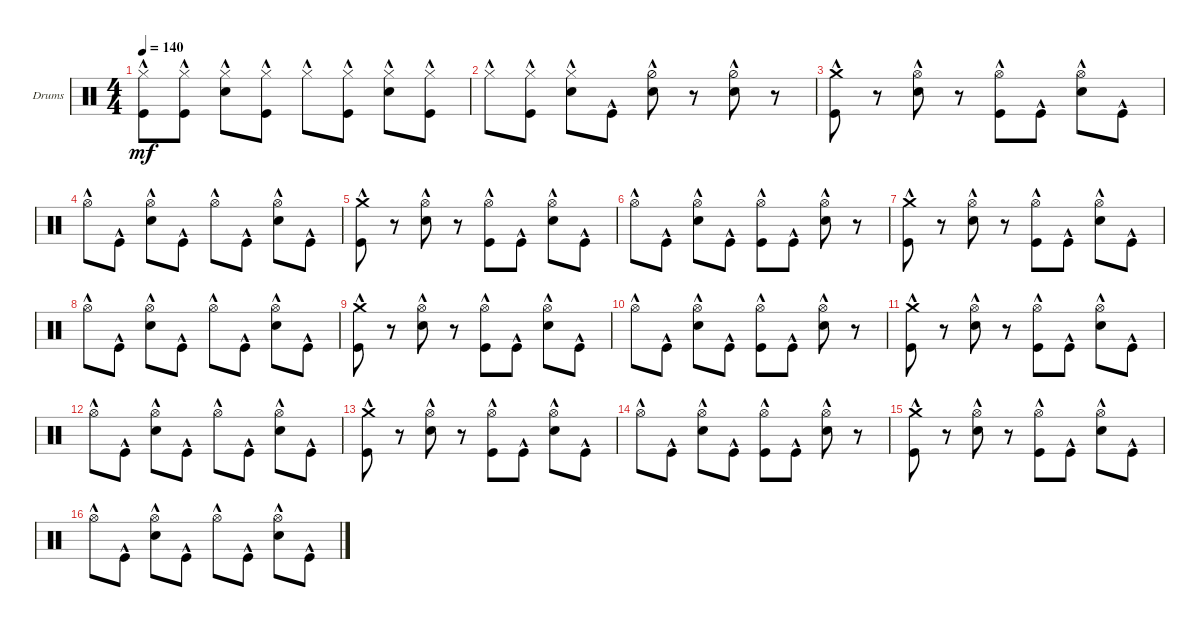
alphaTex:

\defaultSystemsLayout 4
\bracketExtendMode groupsimilarinstruments
\firstSystemTrackNameOrientation horizontal
\otherSystemsTrackNameOrientation horizontal
\track ("Drumkit" "Drums") {instrument percussion}
\staff {score}
\articulation defaults
\ts (4 4)
\tempo 140
\clef neutral
\ks c
("Kick (hit)"{hac} "Hi-Hat (closed)"{hac}).8{dy mf} ("Hi-Hat (closed)"{hac} "Kick (hit)"{hac}).8 ("Hi-Hat (closed)"{hac} "Snare (hit) 2"{hac}).8 ("Hi-Hat (closed)"{hac} "Kick (hit)"{hac}).8 "Hi-Hat (closed)"{hac}.8 ("Hi-Hat (closed)"{hac} "Kick (hit)"{hac}).8 ("Hi-Hat (closed)"{hac} "Snare (hit) 2"{hac}).8 ("Hi-Hat (closed)"{hac} "Kick (hit)"{hac}).8 |
"Hi-Hat (closed)"{hac}.8 ("Hi-Hat (closed)"{hac} "Kick (hit)"{hac}).8 ("Hi-Hat (closed)"{hac} "Snare (hit) 2"{hac}).8 "Kick (hit)"{hac}.8 ("Hi-Hat (half)"{hac} "Snare (hit) 2"{hac}).8 r.8 ("Hi-Hat (half)"{hac} "Snare (hit) 2"{hac}).8 r.8 |
("Kick (hit)"{hac} "Crash medium (hit)"{hac}).8 r.8 ("Hi-Hat (open)"{hac} "Snare (hit) 2"{hac}).8 r.8 ("Hi-Hat (open)"{hac} "Kick (hit)"{hac}).8 "Kick (hit)"{hac}.8 ("Hi-Hat (open)"{hac} "Snare (hit) 2"{hac}).8 "Kick (hit)"{hac}.8 |
"Hi-Hat (open)"{hac}.8 "Kick (hit)"{hac}.8 ("Hi-Hat (open)"{hac} "Snare (hit) 2"{hac}).8 "Kick (hit)"{hac}.8 "Hi-Hat (open)"{hac}.8 "Kick (hit)"{hac}.8 ("Hi-Hat (open)"{hac} "Snare (hit) 2"{hac}).8 "Kick (hit)"{hac}.8 |
("Kick (hit)"{hac} "Crash medium (hit)"{hac}).8 r.8 ("Hi-Hat (open)"{hac} "Snare (hit) 2"{hac}).8 r.8 ("Hi-Hat (open)"{hac} "Kick (hit)"{hac}).8 "Kick (hit)"{hac}.8 ("Hi-Hat (open)"{hac} "Snare (hit) 2"{hac}).8 "Kick (hit)"{hac}.8 |
"Hi-Hat (open)"{hac}.8 "Kick (hit)"{hac}.8 ("Hi-Hat (open)"{hac} "Snare (hit) 2"{hac}).8 "Kick (hit)"{hac}.8 ("Hi-Hat (open)"{hac} "Kick (hit)"{hac}).8 "Kick (hit)"{hac}.8 ("Hi-Hat (open)"{hac} "Snare (hit) 2"{hac}).8 r.8 |
("Kick (hit)"{hac} "Crash medium (hit)"{hac}).8 r.8 ("Hi-Hat (open)"{hac} "Snare (hit) 2"{hac}).8 r.8 ("Hi-Hat (open)"{hac} "Kick (hit)"{hac}).8 "Kick (hit)"{hac}.8 ("Hi-Hat (open)"{hac} "Snare (hit) 2"{hac}).8 "Kick (hit)"{hac}.8 |
"Hi-Hat (open)"{hac}.8 "Kick (hit)"{hac}.8 ("Hi-Hat (open)"{hac} "Snare (hit) 2"{hac}).8 "Kick (hit)"{hac}.8 "Hi-Hat (open)"{hac}.8 "Kick (hit)"{hac}.8 ("Hi-Hat (open)"{hac} "Snare (hit) 2"{hac}).8 "Kick (hit)"{hac}.8 |
("Kick (hit)"{hac} "Crash medium (hit)"{hac}).8 r.8 ("Hi-Hat (open)"{hac} "Snare (hit) 2"{hac}).8 r.8 ("Hi-Hat (open)"{hac} "Kick (hit)"{hac}).8 "Kick (hit)"{hac}.8 ("Hi-Hat (open)"{hac} "Snare (hit) 2"{hac}).8 "Kick (hit)"{hac}.8 |
"Hi-Hat (open)"{hac}.8 "Kick (hit)"{hac}.8 ("Hi-Hat (open)"{hac} "Snare (hit) 2"{hac}).8 "Kick (hit)"{hac}.8 ("Hi-Hat (open)"{hac} "Kick (hit)"{hac}).8 "Kick (hit)"{hac}.8 ("Hi-Hat (open)"{hac} "Snare (hit) 2"{hac}).8 r.8 |
("Kick (hit)"{hac} "Crash medium (hit)"{hac}).8 r.8 ("Hi-Hat (open)"{hac} "Snare (hit) 2"{hac}).8 r.8 ("Hi-Hat (open)"{hac} "Kick (hit)"{hac}).8 "Kick (hit)"{hac}.8 ("Hi-Hat (open)"{hac} "Snare (hit) 2"{hac}).8 "Kick (hit)"{hac}.8 |
"Hi-Hat (open)"{hac}.8 "Kick (hit)"{hac}.8 ("Hi-Hat (open)"{hac} "Snare (hit) 2"{hac}).8 "Kick (hit)"{hac}.8 "Hi-Hat (open)"{hac}.8 "Kick (hit)"{hac}.8 ("Hi-Hat (open)"{hac} "Snare (hit) 2"{hac}).8 "Kick (hit)"{hac}.8 |
("Kick (hit)"{hac} "Crash medium (hit)"{hac}).8 r.8 ("Hi-Hat (open)"{hac} "Snare (hit) 2"{hac}).8 r.8 ("Hi-Hat (open)"{hac} "Kick (hit)"{hac}).8 "Kick (hit)"{hac}.8 ("Hi-Hat (open)"{hac} "Snare (hit) 2"{hac}).8 "Kick (hit)"{hac}.8 |
"Hi-Hat (open)"{hac}.8 "Kick (hit)"{hac}.8 ("Hi-Hat (open)"{hac} "Snare (hit) 2"{hac}).8 "Kick (hit)"{hac}.8 ("Hi-Hat (open)"{hac} "Kick (hit)"{hac}).8 "Kick (hit)"{hac}.8 ("Hi-Hat (open)"{hac} "Snare (hit) 2"{hac}).8 r.8 |
("Kick (hit)"{hac} "Crash medium (hit)"{hac}).8 r.8 ("Hi-Hat (open)"{hac} "Snare (hit) 2"{hac}).8 r.8 ("Hi-Hat (open)"{hac} "Kick (hit)"{hac}).8 "Kick (hit)"{hac}.8 ("Hi-Hat (open)"{hac} "Snare (hit) 2"{hac}).8 "Kick (hit)"{hac}.8 |
"Hi-Hat (open)"{hac}.8 "Kick (hit)"{hac}.8 ("Hi-Hat (open)"{hac} "Snare (hit) 2"{hac}).8 "Kick (hit)"{hac}.8 "Hi-Hat (open)"{hac}.8 "Kick (hit)"{hac}.8 ("Hi-Hat (open)"{hac} "Snare (hit) 2"{hac}).8 "Kick (hit)"{hac}.8
